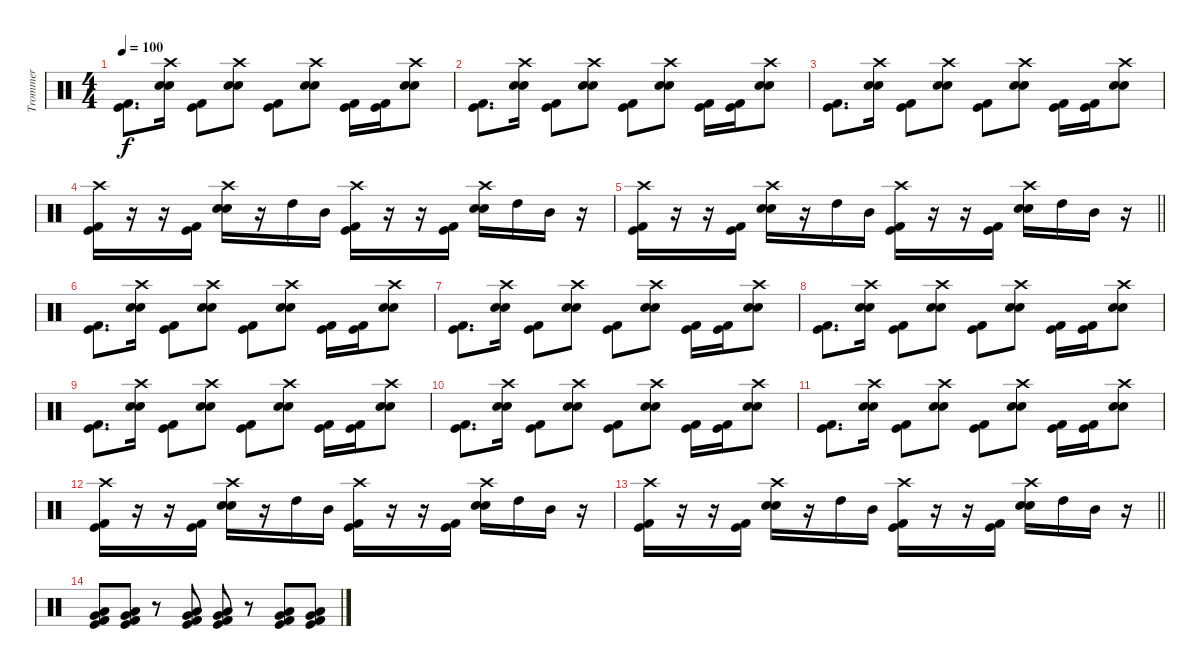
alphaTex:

\track ("Trommer" "Trommer") {instrument percussion}
\staff {score}
\articulation defaults
\ts (4 4)
\tempo 100
\clef neutral
\ks c
("Kick (hit)" "Kick (hit) 2").8{d dy f} ("Crash high (hit)" "Snare (hit) 2" "Electric Snare (hit)").16 ("Kick (hit)" "Kick (hit) 2").8 ("Crash high (hit)" "Snare (hit) 2" "Electric Snare (hit)").8 ("Kick (hit)" "Kick (hit) 2").8 ("Crash high (hit)" "Electric Snare (hit)" "Snare (hit) 2").8 ("Kick (hit)" "Kick (hit) 2").16 ("Kick (hit)" "Kick (hit) 2").16 ("Crash high (hit)" "Snare (hit) 2" "Electric Snare (hit)").8 |
("Kick (hit)" "Kick (hit) 2").8{d} ("Crash high (hit)" "Snare (hit) 2" "Electric Snare (hit)").16 ("Kick (hit)" "Kick (hit) 2").8 ("Crash high (hit)" "Snare (hit) 2" "Electric Snare (hit)").8 ("Kick (hit)" "Kick (hit) 2").8 ("Crash high (hit)" "Electric Snare (hit)" "Snare (hit) 2").8 ("Kick (hit)" "Kick (hit) 2").16 ("Kick (hit)" "Kick (hit) 2").16 ("Crash high (hit)" "Snare (hit) 2" "Electric Snare (hit)").8 |
("Kick (hit)" "Kick (hit) 2").8{d} ("Crash high (hit)" "Snare (hit) 2" "Electric Snare (hit)").16 ("Kick (hit)" "Kick (hit) 2").8 ("Crash high (hit)" "Snare (hit) 2" "Electric Snare (hit)").8 ("Kick (hit)" "Kick (hit) 2").8 ("Crash high (hit)" "Electric Snare (hit)" "Snare (hit) 2").8 ("Kick (hit)" "Kick (hit) 2").16 ("Kick (hit)" "Kick (hit) 2").16 ("Crash high (hit)" "Snare (hit) 2" "Electric Snare (hit)").8 |
("Crash high (hit)" "Kick (hit)" "Kick (hit) 2").16 r.16 r.16 ("Kick (hit)" "Kick (hit) 2").16 ("Crash high (hit)" "Snare (hit) 2" "Electric Snare (hit)").16 r.16 "High Tom (hit)".16 "Mid Tom (hit)".16 ("Crash high (hit)" "Kick (hit)" "Kick (hit) 2").16 r.16 r.16 ("Kick (hit)" "Kick (hit) 2").16 ("Crash high (hit)" "Snare (hit) 2" "Electric Snare (hit)").16 "High Tom (hit)".16 "Mid Tom (hit)".16 r.16 |
\barLineRight lightlight
("Crash high (hit)" "Kick (hit)" "Kick (hit) 2").16 r.16 r.16 ("Kick (hit)" "Kick (hit) 2").16 ("Crash high (hit)" "Snare (hit) 2" "Electric Snare (hit)").16 r.16 "High Tom (hit)".16 "Mid Tom (hit)".16 ("Crash high (hit)" "Kick (hit)" "Kick (hit) 2").16 r.16 r.16 ("Kick (hit)" "Kick (hit) 2").16 ("Crash high (hit)" "Snare (hit) 2" "Electric Snare (hit)").16 "High Tom (hit)".16 "Mid Tom (hit)".16 r.16 |
("Kick (hit)" "Kick (hit) 2").8{d} ("Crash high (hit)" "Snare (hit) 2" "Electric Snare (hit)").16 ("Kick (hit)" "Kick (hit) 2").8 ("Crash high (hit)" "Snare (hit) 2" "Electric Snare (hit)").8 ("Kick (hit)" "Kick (hit) 2").8 ("Crash high (hit)" "Electric Snare (hit)" "Snare (hit) 2").8 ("Kick (hit)" "Kick (hit) 2").16 ("Kick (hit)" "Kick (hit) 2").16 ("Crash high (hit)" "Snare (hit) 2" "Electric Snare (hit)").8 |
("Kick (hit)" "Kick (hit) 2").8{d} ("Crash high (hit)" "Snare (hit) 2" "Electric Snare (hit)").16 ("Kick (hit)" "Kick (hit) 2").8 ("Crash high (hit)" "Snare (hit) 2" "Electric Snare (hit)").8 ("Kick (hit)" "Kick (hit) 2").8 ("Crash high (hit)" "Electric Snare (hit)" "Snare (hit) 2").8 ("Kick (hit)" "Kick (hit) 2").16 ("Kick (hit)" "Kick (hit) 2").16 ("Crash high (hit)" "Snare (hit) 2" "Electric Snare (hit)").8 |
("Kick (hit)" "Kick (hit) 2").8{d} ("Crash high (hit)" "Snare (hit) 2" "Electric Snare (hit)").16 ("Kick (hit)" "Kick (hit) 2").8 ("Crash high (hit)" "Snare (hit) 2" "Electric Snare (hit)").8 ("Kick (hit)" "Kick (hit) 2").8 ("Crash high (hit)" "Electric Snare (hit)" "Snare (hit) 2").8 ("Kick (hit)" "Kick (hit) 2").16 ("Kick (hit)" "Kick (hit) 2").16 ("Crash high (hit)" "Snare (hit) 2" "Electric Snare (hit)").8 |
("Kick (hit)" "Kick (hit) 2").8{d} ("Crash high (hit)" "Snare (hit) 2" "Electric Snare (hit)").16 ("Kick (hit)" "Kick (hit) 2").8 ("Crash high (hit)" "Snare (hit) 2" "Electric Snare (hit)").8 ("Kick (hit)" "Kick (hit) 2").8 ("Crash high (hit)" "Electric Snare (hit)" "Snare (hit) 2").8 ("Kick (hit)" "Kick (hit) 2").16 ("Kick (hit)" "Kick (hit) 2").16 ("Crash high (hit)" "Snare (hit) 2" "Electric Snare (hit)").8 |
("Kick (hit)" "Kick (hit) 2").8{d} ("Crash high (hit)" "Snare (hit) 2" "Electric Snare (hit)").16 ("Kick (hit)" "Kick (hit) 2").8 ("Crash high (hit)" "Snare (hit) 2" "Electric Snare (hit)").8 ("Kick (hit)" "Kick (hit) 2").8 ("Crash high (hit)" "Electric Snare (hit)" "Snare (hit) 2").8 ("Kick (hit)" "Kick (hit) 2").16 ("Kick (hit)" "Kick (hit) 2").16 ("Crash high (hit)" "Snare (hit) 2" "Electric Snare (hit)").8 |
("Kick (hit)" "Kick (hit) 2").8{d} ("Crash high (hit)" "Snare (hit) 2" "Electric Snare (hit)").16 ("Kick (hit)" "Kick (hit) 2").8 ("Crash high (hit)" "Snare (hit) 2" "Electric Snare (hit)").8 ("Kick (hit)" "Kick (hit) 2").8 ("Crash high (hit)" "Electric Snare (hit)" "Snare (hit) 2").8 ("Kick (hit)" "Kick (hit) 2").16 ("Kick (hit)" "Kick (hit) 2").16 ("Crash high (hit)" "Snare (hit) 2" "Electric Snare (hit)").8 |
("Crash high (hit)" "Kick (hit)" "Kick (hit) 2").16 r.16 r.16 ("Kick (hit)" "Kick (hit) 2").16 ("Crash high (hit)" "Snare (hit) 2" "Electric Snare (hit)").16 r.16 "High Tom (hit)".16 "Mid Tom (hit)".16 ("Crash high (hit)" "Kick (hit)" "Kick (hit) 2").16 r.16 r.16 ("Kick (hit)" "Kick (hit) 2").16 ("Crash high (hit)" "Snare (hit) 2" "Electric Snare (hit)").16 "High Tom (hit)".16 "Mid Tom (hit)".16 r.16 |
\barLineRight lightlight
("Crash high (hit)" "Kick (hit)" "Kick (hit) 2").16 r.16 r.16 ("Kick (hit)" "Kick (hit) 2").16 ("Crash high (hit)" "Snare (hit) 2" "Electric Snare (hit)").16 r.16 "High Tom (hit)".16 "Mid Tom (hit)".16 ("Crash high (hit)" "Kick (hit)" "Kick (hit) 2").16 r.16 r.16 ("Kick (hit)" "Kick (hit) 2").16 ("Crash high (hit)" "Snare (hit) 2" "Electric Snare (hit)").16 "High Tom (hit)".16 "Mid Tom (hit)".16 r.16 |
("Kick (hit)" "Kick (hit) 2" "Low Tom (hit)" "Very Low Tom (hit)").8 ("Kick (hit)" "Kick (hit) 2" "Low Tom (hit)" "Very Low Tom (hit)").8 r.8 ("Kick (hit)" "Kick (hit) 2" "Low Tom (hit)" "Very Low Tom (hit)").8 ("Kick (hit)" "Kick (hit) 2" "Low Tom (hit)" "Very Low Tom (hit)").8 r.8 ("Kick (hit)" "Kick (hit) 2" "Low Tom (hit)" "Very Low Tom (hit)").8 ("Kick (hit)" "Kick (hit) 2" "Low Tom (hit)" "Very Low Tom (hit)").8
